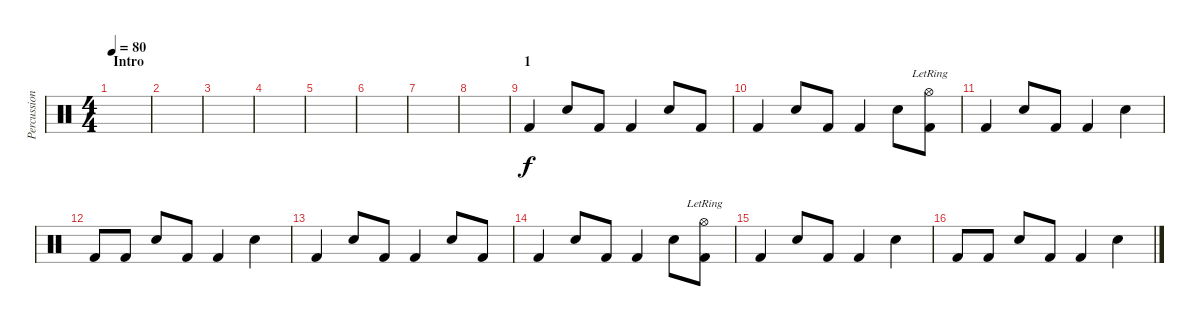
\track ("Percussion" "Percussion") {instrument percussion}
\staff {score}
\articulation defaults
\ts (4 4)
\section ("" "Intro")
\tempo 80
\clef neutral
\ks c
|
|
|
|
|
|
|
|
\section ("" "1")
"Kick (hit) 2".4 "Snare (hit) 2".8 "Kick (hit) 2".8 "Kick (hit) 2".4 "Snare (hit) 2".8 "Kick (hit) 2".8 |
"Kick (hit) 2".4 "Snare (hit) 2".8 "Kick (hit) 2".8 "Kick (hit) 2".4 "Snare (hit) 2".8 ("Kick (hit) 2" "Hi-Hat (open)"{lr}).8 |
"Kick (hit) 2".4 "Snare (hit) 2".8 "Kick (hit) 2".8 "Kick (hit) 2".4 "Snare (hit) 2".4 |
"Kick (hit) 2".8 "Kick (hit) 2".8 "Snare (hit) 2".8 "Kick (hit) 2".8 "Kick (hit) 2".4 "Snare (hit) 2".4 |
"Kick (hit) 2".4 "Snare (hit) 2".8 "Kick (hit) 2".8 "Kick (hit) 2".4 "Snare (hit) 2".8 "Kick (hit) 2".8 |
"Kick (hit) 2".4 "Snare (hit) 2".8 "Kick (hit) 2".8 "Kick (hit) 2".4 "Snare (hit) 2".8 ("Kick (hit) 2" "Hi-Hat (open)"{lr}).8 |
"Kick (hit) 2".4 "Snare (hit) 2".8 "Kick (hit) 2".8 "Kick (hit) 2".4 "Snare (hit) 2".4 |
"Kick (hit) 2".8 "Kick (hit) 2".8 "Snare (hit) 2".8 "Kick (hit) 2".8 "Kick (hit) 2".4 "Snare (hit) 2".4
